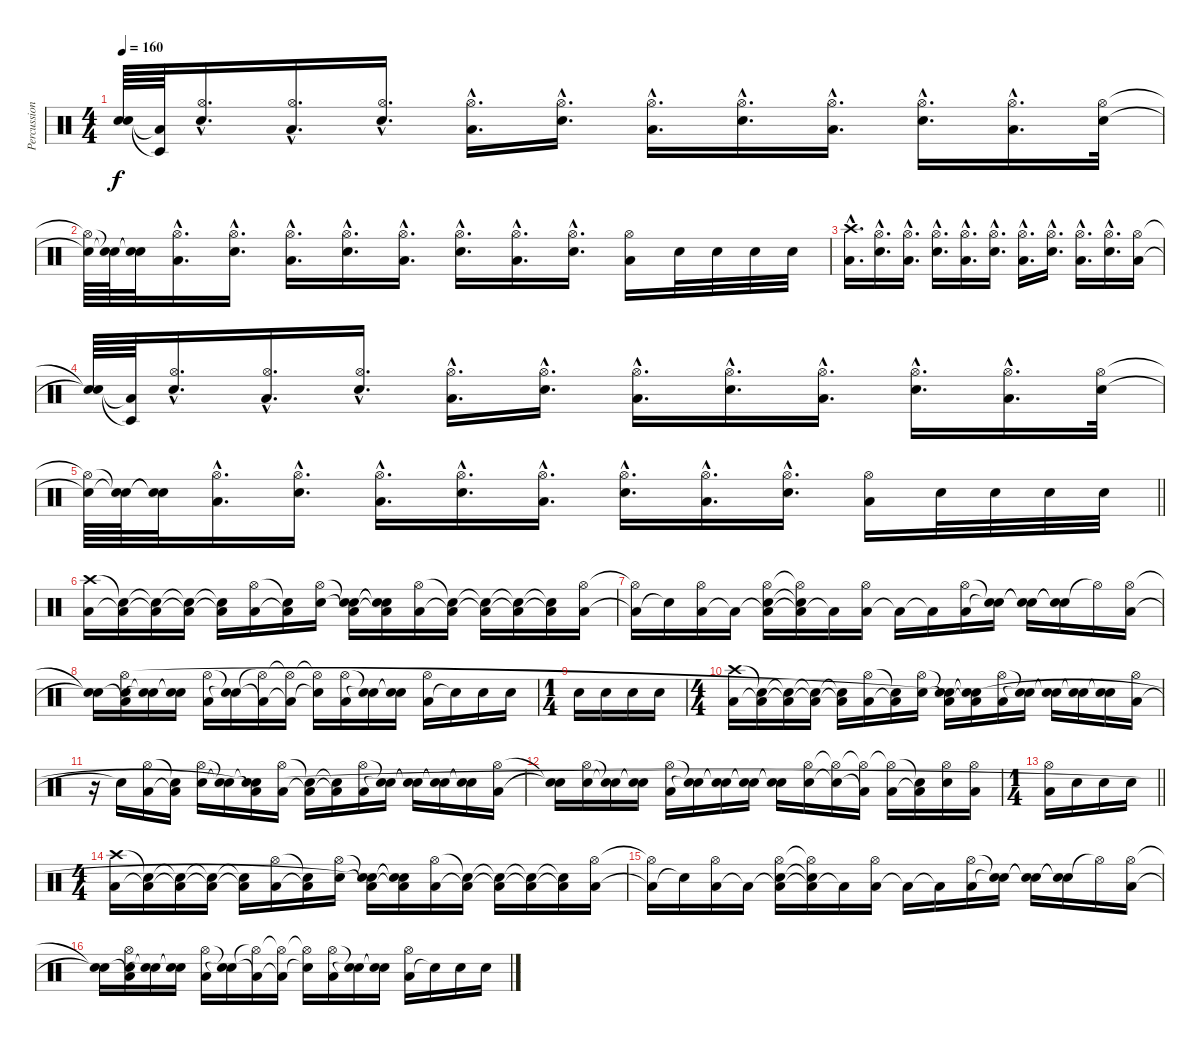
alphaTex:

\track ("Percussion 1" "Percussion") {instrument percussion}
\staff {score}
\articulation defaults
\ts (4 4)
\tempo 160
\clef neutral
\ks c
("Snare (hit)"{t} "Snare (hit)"{t}).64{dy f} ("Low Floor Tom (hit)"{t} "Timbale low (hit)"{t}).64 ("Snare (hit) 2"{hac} "Hi-Hat (open)"{hac}).16{d} ("Low Floor Tom (hit)"{hac} "Hi-Hat (open)"{hac}).16{d} ("Snare (hit) 2"{hac} "Hi-Hat (open)"{hac}).16{d} ("Low Floor Tom (hit)"{hac} "Hi-Hat (open)"{hac}).16{d} ("Snare (hit) 2"{hac} "Hi-Hat (open)"{hac}).16{d} ("Low Floor Tom (hit)"{hac} "Hi-Hat (open)"{hac}).16{d} ("Snare (hit) 2"{hac} "Hi-Hat (open)"{hac}).16{d} ("Low Floor Tom (hit)"{hac} "Hi-Hat (open)"{hac}).16{d} ("Snare (hit) 2"{hac} "Hi-Hat (open)"{hac}).16{d} ("Low Floor Tom (hit)"{hac} "Hi-Hat (open)"{hac}).16{d} ("Snare (hit) 2" "Hi-Hat (open)").32 |
("Snare (hit) 2"{t} "Hi-Hat (open)"{t}).64 ("Snare (hit)"{t} "Snare (hit)"{t}).64 ("Snare (hit)"{t} "Snare (hit)"{t}).32 ("Low Floor Tom (hit)"{hac} "Hi-Hat (open)"{hac}).16{d} ("Snare (hit) 2"{hac} "Hi-Hat (open)"{hac}).16{d} ("Low Floor Tom (hit)"{hac} "Hi-Hat (open)"{hac}).16{d} ("Snare (hit) 2"{hac} "Hi-Hat (open)"{hac}).16{d} ("Low Floor Tom (hit)"{hac} "Hi-Hat (open)"{hac}).16{d} ("Snare (hit) 2"{hac} "Hi-Hat (open)"{hac}).16{d} ("Low Floor Tom (hit)"{hac} "Hi-Hat (open)"{hac}).16{d} ("Snare (hit) 2"{hac} "Hi-Hat (open)"{hac}).16{d} ("Low Floor Tom (hit)" "Hi-Hat (open)").16 "Snare (hit) 2".32 "Snare (hit) 2".32 "Snare (hit) 2".32 "Snare (hit) 2".32 |
("Low Floor Tom (hit)"{hac} "Crash high (hit)"{hac}).16{d} ("Snare (hit) 2"{hac} "Hi-Hat (open)"{hac}).16{d} ("Low Floor Tom (hit)"{hac} "Hi-Hat (open)"{hac}).16{d} ("Snare (hit) 2"{hac} "Hi-Hat (open)"{hac}).16{d} ("Low Floor Tom (hit)"{hac} "Hi-Hat (open)"{hac}).16{d} ("Snare (hit) 2"{hac} "Hi-Hat (open)"{hac}).16{d} ("Low Floor Tom (hit)"{hac} "Hi-Hat (open)"{hac}).16{d} ("Snare (hit) 2"{hac} "Hi-Hat (open)"{hac}).16{d} ("Low Floor Tom (hit)"{hac} "Hi-Hat (open)"{hac}).16{d} ("Snare (hit) 2"{hac} "Hi-Hat (open)"{hac}).16{d} ("Low Floor Tom (hit)" "Hi-Hat (open)").16 |
("Snare (hit)"{t} "Snare (hit)"{t}).64 ("Low Floor Tom (hit)"{t} "Timbale low (hit)"{t}).64 ("Snare (hit) 2"{hac} "Hi-Hat (open)"{hac}).16{d} ("Low Floor Tom (hit)"{hac} "Hi-Hat (open)"{hac}).16{d} ("Snare (hit) 2"{hac} "Hi-Hat (open)"{hac}).16{d} ("Low Floor Tom (hit)"{hac} "Hi-Hat (open)"{hac}).16{d} ("Snare (hit) 2"{hac} "Hi-Hat (open)"{hac}).16{d} ("Low Floor Tom (hit)"{hac} "Hi-Hat (open)"{hac}).16{d} ("Snare (hit) 2"{hac} "Hi-Hat (open)"{hac}).16{d} ("Low Floor Tom (hit)"{hac} "Hi-Hat (open)"{hac}).16{d} ("Snare (hit) 2"{hac} "Hi-Hat (open)"{hac}).16{d} ("Low Floor Tom (hit)"{hac} "Hi-Hat (open)"{hac}).16{d} ("Snare (hit) 2" "Hi-Hat (open)").32 |
\barLineRight lightlight
("Snare (hit) 2"{t} "Hi-Hat (open)"{t}).64 ("Snare (hit)"{t} "Snare (hit)"{t}).64 ("Snare (hit)"{t} "Snare (hit)"{t}).32 ("Low Floor Tom (hit)"{hac} "Hi-Hat (open)"{hac}).16{d} ("Snare (hit) 2"{hac} "Hi-Hat (open)"{hac}).16{d} ("Low Floor Tom (hit)"{hac} "Hi-Hat (open)"{hac}).16{d} ("Snare (hit) 2"{hac} "Hi-Hat (open)"{hac}).16{d} ("Low Floor Tom (hit)"{hac} "Hi-Hat (open)"{hac}).16{d} ("Snare (hit) 2"{hac} "Hi-Hat (open)"{hac}).16{d} ("Low Floor Tom (hit)"{hac} "Hi-Hat (open)"{hac}).16{d} ("Snare (hit) 2"{hac} "Hi-Hat (open)"{hac}).16{d} ("Low Floor Tom (hit)" "Hi-Hat (open)").16 "Snare (hit) 2".32 "Snare (hit) 2".32 "Snare (hit) 2".32 "Snare (hit) 2".32 |
\section ("" " ")
("Low Floor Tom (hit)" "Crash high (hit)").16 ("Low Floor Tom (hit)"{t} "Snare (hit)"{t}).16 ("Low Floor Tom (hit)"{t} "Snare (hit)"{t}).16 ("Low Floor Tom (hit)"{t} "Snare (hit)"{t}).16 ("Low Floor Tom (hit)"{t} "Snare (hit)"{t}).16 ("Low Floor Tom (hit)" "Hi-Hat (open)").16 ("Low Floor Tom (hit)"{t} "Snare (hit)"{t}).16 ("Snare (hit) 2" "Hi-Hat (open)").16 ("Low Floor Tom (hit)"{t} "Snare (hit)"{t} "Snare (hit)").16 ("Low Floor Tom (hit)"{t} "Snare (hit)"{t} "Snare (hit)"{t}).16 ("Low Floor Tom (hit)" "Hi-Hat (open)").16 ("Low Floor Tom (hit)"{t} "Snare (hit)"{t}).16 ("Low Floor Tom (hit)"{t} "Snare (hit)"{t}).16 ("Low Floor Tom (hit)"{t} "Snare (hit)"{t}).16 ("Low Floor Tom (hit)"{t} "Snare (hit)"{t}).16 ("Low Floor Tom (hit)" "Hi-Hat (open)").16 |
("Low Floor Tom (hit)"{t} "Hi-Hat (open)"{t}).16 "Snare (hit)"{t}.16 ("Low Floor Tom (hit)" "Hi-Hat (open)").16 "Low Floor Tom (hit)"{t}.16 ("Low Floor Tom (hit)"{t} "Snare (hit) 2" "Hi-Hat (open)").16 ("Low Floor Tom (hit)"{t} "Snare (hit)"{t} "Hi-Hat (open)"{t}).16 "Low Floor Tom (hit)"{t}.16 ("Low Floor Tom (hit)" "Hi-Hat (open)").16 "Low Floor Tom (hit)"{t}.16 "Low Floor Tom (hit)"{t}.16 ("Low Floor Tom (hit)" "Hi-Hat (open)").16 ("Snare (hit)"{t} "Snare (hit)"{t}).16 ("Snare (hit)"{t} "Snare (hit)"{t}).16 ("Snare (hit)"{t} "Snare (hit)"{t}).16 "Hi-Hat (open)"{t}.16 ("Low Floor Tom (hit)" "Hi-Hat (open)").16 |
("Snare (hit)"{t} "Snare (hit)"{t}).16 ("Low Floor Tom (hit)"{t} "Snare (hit) 2" "Hi-Hat (open)").16 ("Snare (hit)"{t} "Snare (hit)"{t}).16 ("Snare (hit)"{t} "Snare (hit)"{t}).16 ("Low Floor Tom (hit)" "Hi-Hat (open)").16 ("Snare (hit)"{t} "Snare (hit)"{t}).16 ("Low Floor Tom (hit)"{t} "Hi-Hat (open)"{t}).16 ("Low Floor Tom (hit)"{t} "Hi-Hat (open)"{t}).16 ("Snare (hit)"{t} "Hi-Hat (open)"{t}).16 ("Low Floor Tom (hit)" "Hi-Hat (open)").16 ("Snare (hit)"{t} "Snare (hit)"{t}).16 ("Snare (hit)"{t} "Snare (hit)"{t}).16 ("Low Floor Tom (hit)" "Hi-Hat (open)").16 "Snare (hit)"{t}.16 "Snare (hit) 2".16 "Snare (hit) 2".16 |
\ts (1 4)
"Snare (hit) 2".16 "Snare (hit) 2".16 "Snare (hit) 2".16 "Snare (hit) 2".16 |
\ts (4 4)
("Low Floor Tom (hit)" "Crash high (hit)").16 ("Low Floor Tom (hit)"{t} "Snare (hit)"{t}).16 ("Low Floor Tom (hit)"{t} "Snare (hit)"{t}).16 ("Low Floor Tom (hit)"{t} "Snare (hit)"{t}).16 ("Low Floor Tom (hit)"{t} "Snare (hit)"{t}).16 ("Low Floor Tom (hit)" "Hi-Hat (open)").16 ("Low Floor Tom (hit)"{t} "Snare (hit)"{t}).16 ("Snare (hit) 2" "Hi-Hat (open)").16 ("Low Floor Tom (hit)"{t} "Snare (hit)"{t} "Snare (hit)"{t}).16 ("Low Floor Tom (hit)"{t} "Snare (hit)"{t} "Snare (hit)"{t}).16 ("Low Floor Tom (hit)" "Hi-Hat (open)").16 ("Snare (hit)"{t} "Snare (hit)"{t}).16 ("Snare (hit)"{t} "Snare (hit)"{t}).16 ("Snare (hit)"{t} "Snare (hit)"{t}).16 ("Snare (hit)"{t} "Snare (hit)"{t}).16 ("Low Floor Tom (hit)" "Hi-Hat (open)").16 |
r.16 "Snare (hit)"{t}.16 ("Low Floor Tom (hit)" "Hi-Hat (open)").16 ("Low Floor Tom (hit)"{t} "Snare (hit)"{t}).16 ("Snare (hit) 2" "Hi-Hat (open)").16 ("Snare (hit)"{t} "Snare (hit)"{t}).16 ("Low Floor Tom (hit)"{t} "Snare (hit)"{t} "Snare (hit)"{t}).16 ("Low Floor Tom (hit)" "Hi-Hat (open)").16 ("Low Floor Tom (hit)"{t} "Snare (hit)"{t}).16 ("Low Floor Tom (hit)"{t} "Snare (hit)"{t}).16 ("Low Floor Tom (hit)" "Hi-Hat (open)").16 ("Snare (hit)"{t} "Snare (hit)"{t}).16 ("Snare (hit)"{t} "Snare (hit)"{t}).16 ("Snare (hit)"{t} "Snare (hit)"{t}).16 ("Snare (hit)"{t} "Snare (hit)"{t}).16 ("Low Floor Tom (hit)" "Hi-Hat (open)").16 |
("Snare (hit)"{t} "Snare (hit)"{t}).16 ("Snare (hit) 2" "Hi-Hat (open)").16 ("Snare (hit)"{t} "Snare (hit)"{t}).16 ("Snare (hit)"{t} "Snare (hit)"{t}).16 ("Low Floor Tom (hit)" "Hi-Hat (open)").16 ("Snare (hit)"{t} "Snare (hit)"{t}).16 ("Snare (hit)"{t} "Snare (hit)"{t}).16 ("Snare (hit)"{t} "Snare (hit)"{t}).16 ("Snare (hit)"{t} "Snare (hit)"{t}).16 ("Snare (hit) 2" "Hi-Hat (open)").16 ("Snare (hit)"{t} "Hi-Hat (open)"{t}).16 ("Low Floor Tom (hit)"{t} "Hi-Hat (open)"{t}).16 ("Low Floor Tom (hit)" "Hi-Hat (open)"{t}).16 ("Low Floor Tom (hit)"{t} "Snare (hit)"{t}).16 ("Snare (hit) 2" "Hi-Hat (open)").16 ("Low Floor Tom (hit)" "Hi-Hat (open)").16 |
\ts (1 4)
\barLineRight lightlight
("Low Floor Tom (hit)" "Hi-Hat (open)").16 "Snare (hit) 2".16 "Snare (hit) 2".16 "Snare (hit) 2".16 |
\ts (4 4)
("Low Floor Tom (hit)" "Crash high (hit)").16 ("Low Floor Tom (hit)"{t} "Snare (hit)"{t}).16 ("Low Floor Tom (hit)"{t} "Snare (hit)"{t}).16 ("Low Floor Tom (hit)"{t} "Snare (hit)"{t}).16 ("Low Floor Tom (hit)"{t} "Snare (hit)"{t}).16 ("Low Floor Tom (hit)" "Hi-Hat (open)").16 ("Low Floor Tom (hit)"{t} "Snare (hit)"{t}).16 ("Snare (hit) 2" "Hi-Hat (open)").16 ("Low Floor Tom (hit)"{t} "Snare (hit)"{t} "Snare (hit)"{t}).16 ("Low Floor Tom (hit)"{t} "Snare (hit)"{t} "Snare (hit)"{t}).16 ("Low Floor Tom (hit)" "Hi-Hat (open)").16 ("Low Floor Tom (hit)"{t} "Snare (hit)"{t}).16 ("Low Floor Tom (hit)"{t} "Snare (hit)"{t}).16 ("Low Floor Tom (hit)"{t} "Snare (hit)"{t}).16 ("Low Floor Tom (hit)"{t} "Snare (hit)"{t}).16 ("Low Floor Tom (hit)" "Hi-Hat (open)").16 |
("Low Floor Tom (hit)"{t} "Hi-Hat (open)"{t}).16 "Snare (hit)"{t}.16 ("Low Floor Tom (hit)" "Hi-Hat (open)").16 "Low Floor Tom (hit)"{t}.16 ("Low Floor Tom (hit)"{t} "Snare (hit) 2" "Hi-Hat (open)").16 ("Low Floor Tom (hit)"{t} "Snare (hit)"{t} "Hi-Hat (open)"{t}).16 "Low Floor Tom (hit)"{t}.16 ("Low Floor Tom (hit)" "Hi-Hat (open)").16 "Low Floor Tom (hit)"{t}.16 "Low Floor Tom (hit)"{t}.16 ("Low Floor Tom (hit)" "Hi-Hat (open)").16 ("Snare (hit)"{t} "Snare (hit)"{t}).16 ("Snare (hit)"{t} "Snare (hit)"{t}).16 ("Snare (hit)"{t} "Snare (hit)"{t}).16 "Hi-Hat (open)"{t}.16 ("Low Floor Tom (hit)" "Hi-Hat (open)").16 |
("Snare (hit)"{t} "Snare (hit)"{t}).16 ("Low Floor Tom (hit)"{t} "Snare (hit) 2" "Hi-Hat (open)").16 ("Snare (hit)"{t} "Snare (hit)"{t}).16 ("Snare (hit)"{t} "Snare (hit)"{t}).16 ("Low Floor Tom (hit)" "Hi-Hat (open)").16 ("Snare (hit)"{t} "Snare (hit)"{t}).16 ("Low Floor Tom (hit)"{t} "Hi-Hat (open)"{t}).16 ("Low Floor Tom (hit)"{t} "Hi-Hat (open)"{t}).16 ("Snare (hit)"{t} "Hi-Hat (open)"{t}).16 ("Low Floor Tom (hit)" "Hi-Hat (open)").16 ("Snare (hit)"{t} "Snare (hit)"{t}).16 ("Snare (hit)"{t} "Snare (hit)"{t}).16 ("Low Floor Tom (hit)" "Hi-Hat (open)").16 "Snare (hit)"{t}.16 "Snare (hit) 2".16 "Snare (hit) 2".16
